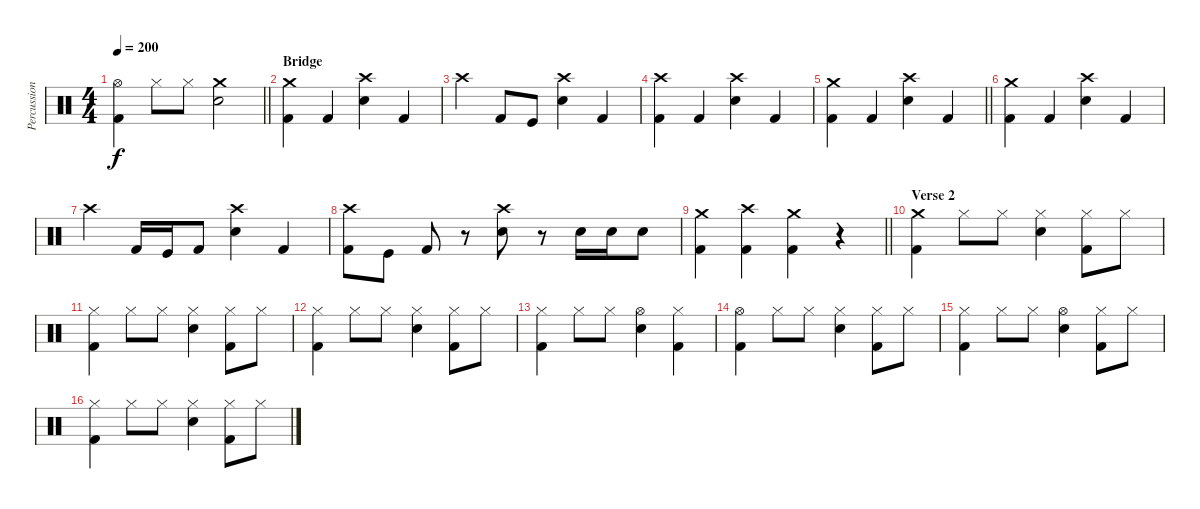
\track ("Percussion" "Percussion") {instrument percussion}
\staff {score}
\articulation defaults
\ts (4 4)
\tempo 200
\clef neutral
\barLineRight lightlight
\ks c
("Hi-Hat (open)" "Kick (hit) 2").4{dy f} "Hi-Hat (closed)".8 "Hi-Hat (closed)".8 ("Crash medium (hit)" "Snare (hit) 2").2 |
\section ("" "Bridge")
("Crash medium (hit)" "Kick (hit) 2").4 "Kick (hit) 2".4 ("Crash high (hit)" "Snare (hit) 2").4 "Kick (hit) 2".4 |
"Crash high (hit)".4 "Kick (hit) 2".8 "Kick (hit)".8 ("Crash high (hit)" "Snare (hit) 2").4 "Kick (hit) 2".4 |
("Crash high (hit)" "Kick (hit) 2").4 "Kick (hit) 2".4 ("Crash high (hit)" "Snare (hit) 2").4 "Kick (hit) 2".4 |
\barLineRight lightlight
("Crash medium (hit)" "Kick (hit) 2").4 "Kick (hit) 2".4 ("Crash high (hit)" "Snare (hit) 2").4 "Kick (hit) 2".4 |
("Crash medium (hit)" "Kick (hit) 2").4 "Kick (hit) 2".4 ("Crash high (hit)" "Snare (hit) 2").4 "Kick (hit) 2".4 |
"Crash high (hit)".4 "Kick (hit) 2".16 "Kick (hit)".16 "Kick (hit) 2".8 ("Crash high (hit)" "Snare (hit) 2").4 "Kick (hit) 2".4 |
("Crash high (hit)" "Kick (hit) 2").8 "Kick (hit)".8 "Kick (hit) 2".8 r.8 ("Crash high (hit)" "Snare (hit) 2").8 r.8 "Snare (hit) 2".16 "Snare (hit) 2".16 "Snare (hit) 2".8 |
\barLineRight lightlight
("Crash medium (hit)" "Kick (hit) 2").4 ("Crash high (hit)" "Kick (hit) 2").4 ("Crash medium (hit)" "Kick (hit) 2").4 r.4 |
\section ("" "Verse 2")
("Crash medium (hit)" "Kick (hit) 2").4 "Hi-Hat (closed)".8 "Hi-Hat (closed)".8 ("Hi-Hat (closed)" "Snare (hit) 2").4 ("Hi-Hat (closed)" "Kick (hit) 2").8 "Hi-Hat (closed)".8 |
("Hi-Hat (closed)" "Kick (hit) 2").4 "Hi-Hat (closed)".8 "Hi-Hat (closed)".8 ("Hi-Hat (closed)" "Snare (hit) 2").4 ("Hi-Hat (closed)" "Kick (hit) 2").8 "Hi-Hat (closed)".8 |
("Hi-Hat (closed)" "Kick (hit) 2").4 "Hi-Hat (closed)".8 "Hi-Hat (closed)".8 ("Hi-Hat (closed)" "Snare (hit) 2").4 ("Hi-Hat (closed)" "Kick (hit) 2").8 "Hi-Hat (closed)".8 |
("Hi-Hat (closed)" "Kick (hit) 2").4 "Hi-Hat (closed)".8 "Hi-Hat (closed)".8 ("Hi-Hat (open)" "Snare (hit) 2").4 ("Hi-Hat (closed)" "Kick (hit) 2").4 |
("Hi-Hat (open)" "Kick (hit) 2").4 "Hi-Hat (closed)".8 "Hi-Hat (closed)".8 ("Hi-Hat (closed)" "Snare (hit) 2").4 ("Hi-Hat (closed)" "Kick (hit) 2").8 "Hi-Hat (closed)".8 |
("Hi-Hat (closed)" "Kick (hit) 2").4 "Hi-Hat (closed)".8 "Hi-Hat (closed)".8 ("Hi-Hat (open)" "Snare (hit) 2").4 ("Hi-Hat (closed)" "Kick (hit) 2").8 "Hi-Hat (closed)".8 |
("Hi-Hat (closed)" "Kick (hit) 2").4 "Hi-Hat (closed)".8 "Hi-Hat (closed)".8 ("Hi-Hat (closed)" "Snare (hit) 2").4 ("Hi-Hat (closed)" "Kick (hit) 2").8 "Hi-Hat (closed)".8
